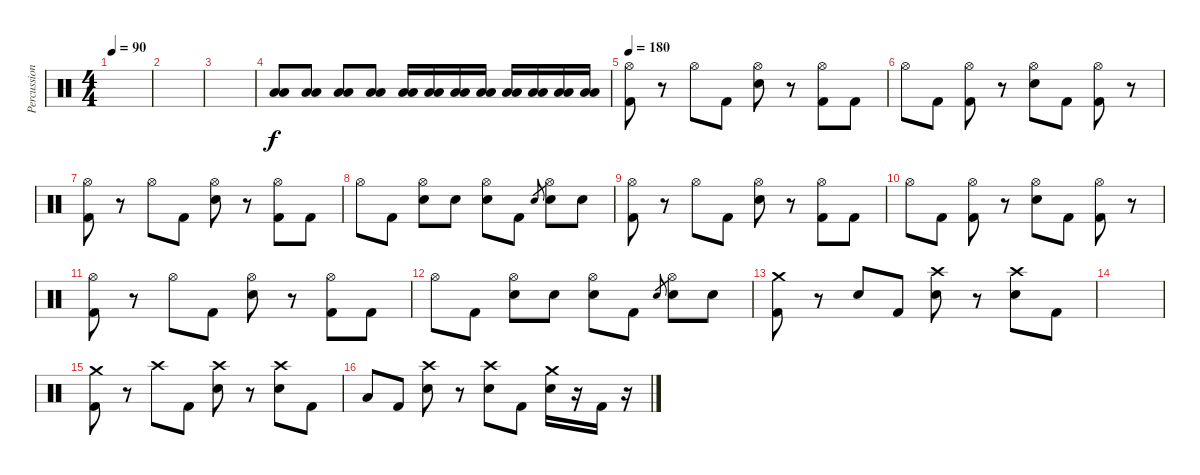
\track ("Percussion" "Percussion") {instrument percussion}
\staff {score}
\articulation defaults
\ts (4 4)
\tempo 90
\clef neutral
\ks c
|
|
|
("Low Floor Tom (hit)" "Low Tom (hit)").8 ("Low Floor Tom (hit)" "Low Tom (hit)").8 ("Low Floor Tom (hit)" "Low Tom (hit)").8 ("Low Floor Tom (hit)" "Low Tom (hit)").8 ("Low Floor Tom (hit)" "Low Tom (hit)").16 ("Low Floor Tom (hit)" "Low Tom (hit)").16 ("Low Floor Tom (hit)" "Low Tom (hit)").16 ("Low Floor Tom (hit)" "Low Tom (hit)").16 ("Low Floor Tom (hit)" "Low Tom (hit)").16 ("Low Floor Tom (hit)" "Low Tom (hit)").16 ("Low Floor Tom (hit)" "Low Tom (hit)").16 ("Low Floor Tom (hit)" "Low Tom (hit)").16 |
\tempo 180
("Hi-Hat (open)" "Kick (hit) 2").8 r.8 "Hi-Hat (open)".8 "Kick (hit) 2".8 ("Hi-Hat (open)" "Snare (hit) 2").8 r.8 ("Hi-Hat (open)" "Kick (hit) 2").8 "Kick (hit) 2".8 |
"Hi-Hat (open)".8 "Kick (hit) 2".8 ("Hi-Hat (open)" "Kick (hit) 2").8 r.8 ("Hi-Hat (open)" "Snare (hit) 2").8 "Kick (hit) 2".8 ("Hi-Hat (open)" "Kick (hit) 2").8 r.8 |
("Hi-Hat (open)" "Kick (hit) 2").8 r.8 "Hi-Hat (open)".8 "Kick (hit) 2".8 ("Hi-Hat (open)" "Snare (hit) 2").8 r.8 ("Hi-Hat (open)" "Kick (hit) 2").8 "Kick (hit) 2".8 |
"Hi-Hat (open)".8 "Kick (hit) 2".8 ("Hi-Hat (open)" "Snare (hit) 2").8 "Snare (hit) 2".8 ("Hi-Hat (open)" "Snare (hit) 2").8 "Kick (hit) 2".8 "Snare (hit) 2".8{gr} ("Hi-Hat (open)" "Snare (hit) 2").8 "Snare (hit) 2".8 |
("Hi-Hat (open)" "Kick (hit) 2").8 r.8 "Hi-Hat (open)".8 "Kick (hit) 2".8 ("Hi-Hat (open)" "Snare (hit) 2").8 r.8 ("Hi-Hat (open)" "Kick (hit) 2").8 "Kick (hit) 2".8 |
"Hi-Hat (open)".8 "Kick (hit) 2".8 ("Hi-Hat (open)" "Kick (hit) 2").8 r.8 ("Hi-Hat (open)" "Snare (hit) 2").8 "Kick (hit) 2".8 ("Hi-Hat (open)" "Kick (hit) 2").8 r.8 |
("Hi-Hat (open)" "Kick (hit) 2").8 r.8 "Hi-Hat (open)".8 "Kick (hit) 2".8 ("Hi-Hat (open)" "Snare (hit) 2").8 r.8 ("Hi-Hat (open)" "Kick (hit) 2").8 "Kick (hit) 2".8 |
"Hi-Hat (open)".8 "Kick (hit) 2".8 ("Hi-Hat (open)" "Snare (hit) 2").8 "Snare (hit) 2".8 ("Hi-Hat (open)" "Snare (hit) 2").8 "Kick (hit) 2".8 "Snare (hit) 2".8{gr} ("Hi-Hat (open)" "Snare (hit) 2").8 "Snare (hit) 2".8 |
("Crash medium (hit)" "Kick (hit) 2").8 r.8 "Snare (hit) 2".8 "Kick (hit) 2".8 ("Crash high (hit)" "Snare (hit) 2").8 r.8 ("Crash high (hit)" "Snare (hit) 2").8 "Kick (hit) 2".8 |
|
("Crash medium (hit)" "Kick (hit) 2").8 r.8 "Crash high (hit)".8 "Kick (hit) 2".8 ("Crash high (hit)" "Snare (hit) 2").8 r.8 ("Crash high (hit)" "Snare (hit) 2").8 "Kick (hit) 2".8 |
"Low Tom (hit)".8 "Kick (hit) 2".8 ("Crash high (hit)" "Snare (hit) 2").8 r.8 ("Crash high (hit)" "Snare (hit) 2").8 "Kick (hit) 2".8 ("Crash medium (hit)" "Snare (hit) 2").16 r.16 "Kick (hit) 2".16 r.16
